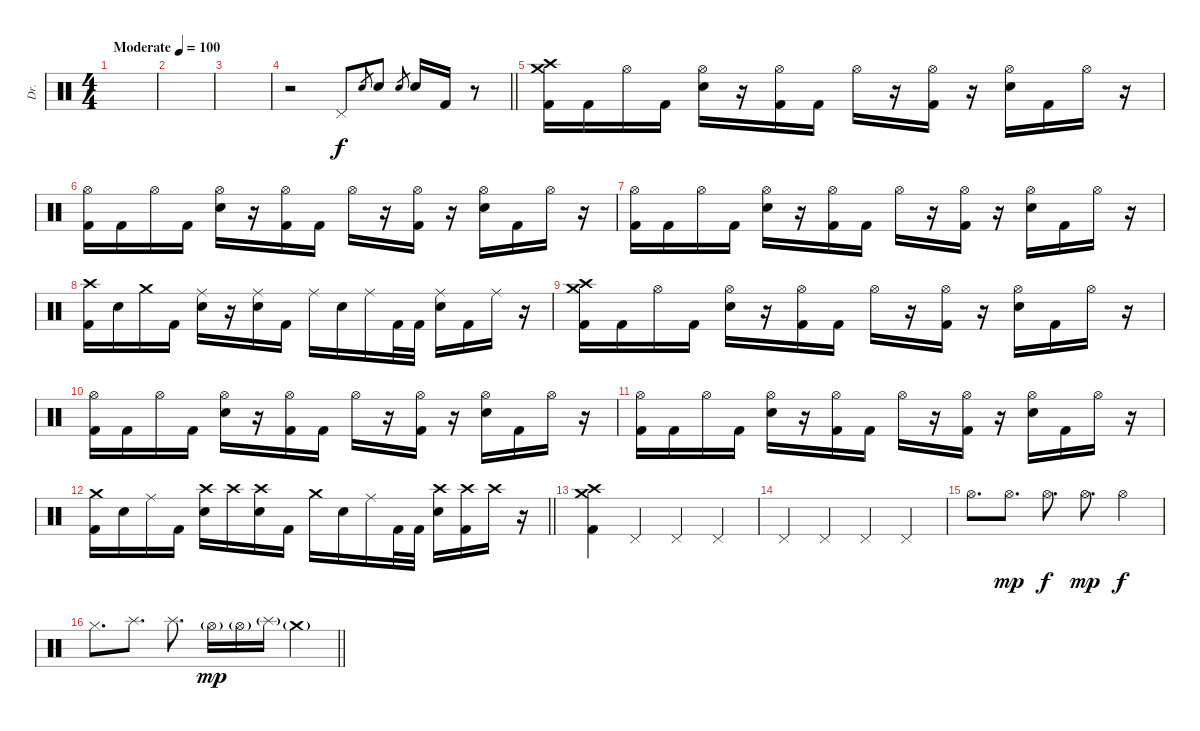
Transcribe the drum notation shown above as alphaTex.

\track ("Dr." "Dr.") {instrument percussion}
\staff {score}
\articulation defaults
\ts (4 4)
\tempo (100 "Moderate")
\clef neutral
\ks c
|
|
|
\barLineRight lightlight
r.2 "Pedal Hi-Hat (hit)".8 "Electric Snare (hit)".8{gr} "Electric Snare (hit)".8 "Electric Snare (hit)".8{gr} "Electric Snare (hit)".16 "Kick (hit) 2".16 r.8 |
("Crash high (hit)" "Crash medium (hit)" "Kick (hit) 2").16 "Kick (hit) 2".16 "Hi-Hat (open)".16 "Kick (hit) 2".16 ("Hi-Hat (open)" "Electric Snare (hit)").16 r.16 ("Hi-Hat (open)" "Kick (hit) 2").16 "Kick (hit) 2".16 "Hi-Hat (open)".16 r.16 ("Hi-Hat (open)" "Kick (hit) 2").16 r.16 ("Hi-Hat (open)" "Electric Snare (hit)").16 "Kick (hit) 2".16 "Hi-Hat (open)".16 r.16 |
("Hi-Hat (open)" "Kick (hit) 2").16 "Kick (hit) 2".16 "Hi-Hat (open)".16 "Kick (hit) 2".16 ("Hi-Hat (open)" "Electric Snare (hit)").16 r.16 ("Hi-Hat (open)" "Kick (hit) 2").16 "Kick (hit) 2".16 "Hi-Hat (open)".16 r.16 ("Hi-Hat (open)" "Kick (hit) 2").16 r.16 ("Hi-Hat (open)" "Electric Snare (hit)").16 "Kick (hit) 2".16 "Hi-Hat (open)".16 r.16 |
("Hi-Hat (open)" "Kick (hit) 2").16 "Kick (hit) 2".16 "Hi-Hat (open)".16 "Kick (hit) 2".16 ("Hi-Hat (open)" "Electric Snare (hit)").16 r.16 ("Hi-Hat (open)" "Kick (hit) 2").16 "Kick (hit) 2".16 "Hi-Hat (open)".16 r.16 ("Hi-Hat (open)" "Kick (hit) 2").16 r.16 ("Hi-Hat (open)" "Electric Snare (hit)").16 "Kick (hit) 2".16 "Hi-Hat (open)".16 r.16 |
("Crash high (hit)" "Kick (hit) 2").16 "Electric Snare (hit)".16 "Crash medium (hit)".16 "Kick (hit) 2".16 ("Ride (middle)" "Electric Snare (hit)").16 r.16 ("Ride (middle)" "Electric Snare (hit)").16 "Kick (hit) 2".16 "Ride (middle)".16 "Electric Snare (hit)".16 "Ride (middle)".16 "Kick (hit) 2".32 "Kick (hit) 2".32 ("Ride (middle)" "Electric Snare (hit)").16 "Kick (hit) 2".16 "Ride (middle)".16 r.16 |
("Crash high (hit)" "Crash medium (hit)" "Kick (hit) 2").16 "Kick (hit) 2".16 "Hi-Hat (open)".16 "Kick (hit) 2".16 ("Hi-Hat (open)" "Electric Snare (hit)").16 r.16 ("Hi-Hat (open)" "Kick (hit) 2").16 "Kick (hit) 2".16 "Hi-Hat (open)".16 r.16 ("Hi-Hat (open)" "Kick (hit) 2").16 r.16 ("Hi-Hat (open)" "Electric Snare (hit)").16 "Kick (hit) 2".16 "Hi-Hat (open)".16 r.16 |
("Hi-Hat (open)" "Kick (hit) 2").16 "Kick (hit) 2".16 "Hi-Hat (open)".16 "Kick (hit) 2".16 ("Hi-Hat (open)" "Electric Snare (hit)").16 r.16 ("Hi-Hat (open)" "Kick (hit) 2").16 "Kick (hit) 2".16 "Hi-Hat (open)".16 r.16 ("Hi-Hat (open)" "Kick (hit) 2").16 r.16 ("Hi-Hat (open)" "Electric Snare (hit)").16 "Kick (hit) 2".16 "Hi-Hat (open)".16 r.16 |
("Hi-Hat (open)" "Kick (hit) 2").16 "Kick (hit) 2".16 "Hi-Hat (open)".16 "Kick (hit) 2".16 ("Hi-Hat (open)" "Electric Snare (hit)").16 r.16 ("Hi-Hat (open)" "Kick (hit) 2").16 "Kick (hit) 2".16 "Hi-Hat (open)".16 r.16 ("Hi-Hat (open)" "Kick (hit) 2").16 r.16 ("Hi-Hat (open)" "Electric Snare (hit)").16 "Kick (hit) 2".16 "Hi-Hat (open)".16 r.16 |
\barLineRight lightlight
("Crash medium (hit)" "Kick (hit) 2").16 "Electric Snare (hit)".16 "Ride (middle)".16 "Kick (hit) 2".16 ("Crash high (hit)" "Electric Snare (hit)").16 "Crash high (hit)".16 ("Crash high (hit)" "Electric Snare (hit)").16 "Kick (hit) 2".16 "Crash medium (hit)".16 "Electric Snare (hit)".16 "Ride (middle)".16 "Kick (hit) 2".32 "Kick (hit) 2".32 ("Crash high (hit)" "Electric Snare (hit)").16 ("Crash high (hit)" "Kick (hit) 2").16 "Crash high (hit)".16 r.16 |
("Crash high (hit)" "Crash medium (hit)" "Kick (hit) 2").4 "Pedal Hi-Hat (hit)".4 "Pedal Hi-Hat (hit)".4 "Pedal Hi-Hat (hit)".4 |
"Pedal Hi-Hat (hit)".4 "Pedal Hi-Hat (hit)".4 "Pedal Hi-Hat (hit)".4 "Pedal Hi-Hat (hit)".4 |
"Hi-Hat (open)".8{d} "Hi-Hat (open)".8{d dy mp} "Hi-Hat (open)".8{d dy f} "Hi-Hat (open)".8{d dy mp} "Hi-Hat (open)".4{dy f} |
\barLineRight lightlight "Hi-Hat (closed)".8{d} "Splash (hit)".8{d} "Splash (hit)".8{d} "Hi-Hat (open)"{g}.16{dy mp} "Hi-Hat (open)"{g}.16 "Splash (hit)"{g}.16 "Crash medium (hit)"{g}.4
